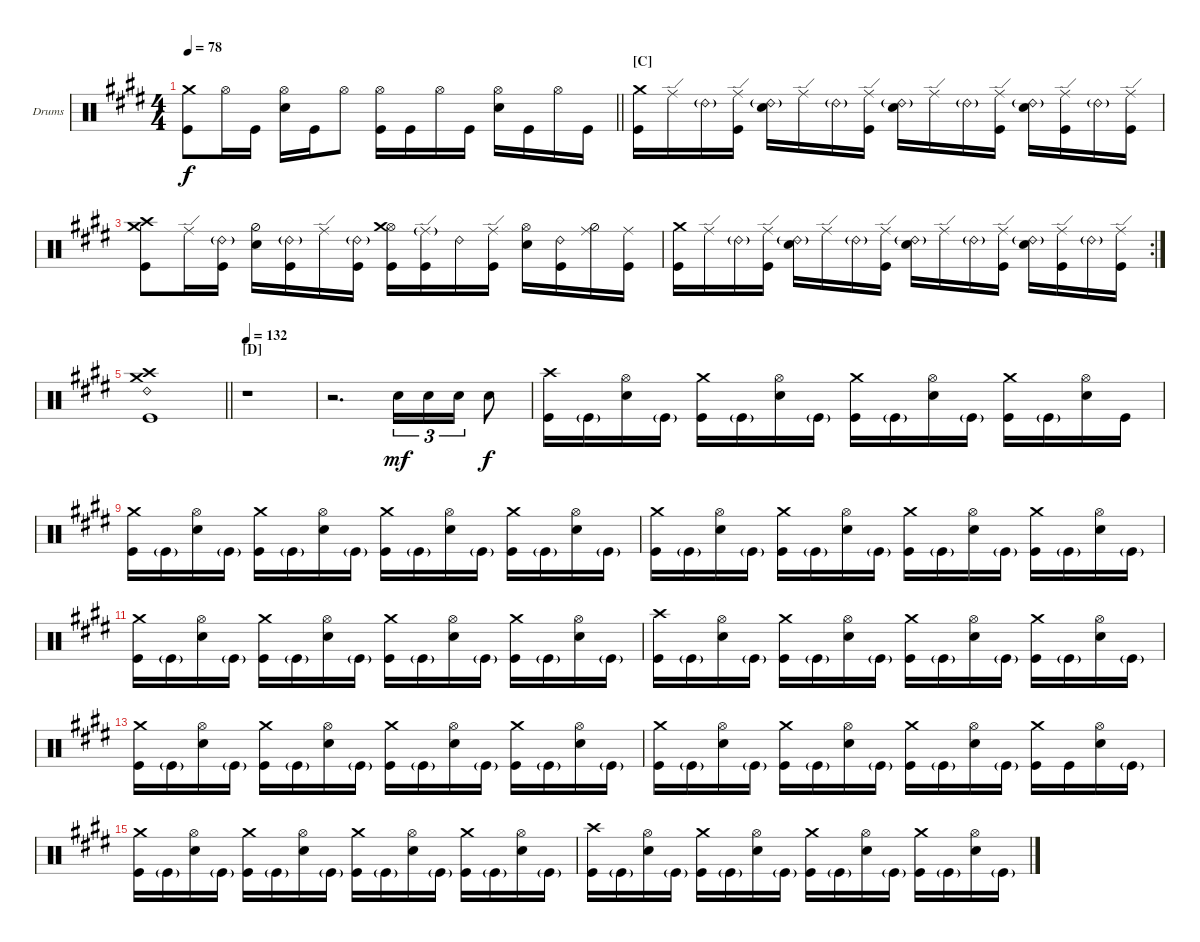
\bracketExtendMode nobrackets
\firstSystemTrackNameOrientation horizontal
\otherSystemsTrackNameOrientation horizontal
\defaultBarNumberDisplay FirstOfSystem
\track ("Drumkit" "Drums") {instrument percussion}
\staff {score}
\articulation defaults
\ts (4 4)
\tempo 78
\clef neutral
\barLineRight lightlight
\ks c#minor
("Crash medium (hit)" "Kick (hit)").8{dy f} "Hi-Hat (open)".16 "Kick (hit)".16 ("Hi-Hat (open)" "Snare (hit) 2").16 "Kick (hit)".16 "Hi-Hat (open)".8 ("Hi-Hat (open)" "Kick (hit)").16 "Kick (hit)".16 "Hi-Hat (open)".16 "Kick (hit)".16 ("Hi-Hat (open)" "Snare (hit) 2").16 "Kick (hit)".16 "Hi-Hat (open)".16 "Kick (hit)".16 |
\section ("C" "")
("Crash medium (hit)" "Kick (hit)").16 "Ride (edge)".16 "Ride (bell) 2"{g}.16 ("Ride (edge)" "Kick (hit)").16 ("Ride (bell) 2"{g} "Snare (hit) 2").16 "Ride (edge)".16 "Ride (bell) 2"{g}.16 ("Ride (edge)" "Kick (hit)").16 ("Ride (bell) 2"{g} "Snare (hit) 2").16 "Ride (edge)".16 "Ride (bell) 2"{g}.16 ("Ride (edge)" "Kick (hit)").16 ("Ride (bell) 2"{g} "Snare (hit) 2").16 ("Ride (edge)" "Kick (hit)").16 "Ride (bell) 2"{g}.16 ("Ride (edge)" "Kick (hit)").16 |
("Crash medium (hit)" "Crash high (hit)" "Kick (hit)").8 "Ride (edge)".16 ("Kick (hit)" "Ride (bell) 2"{g}).16 ("Snare (hit) 2" "Hi-Hat (half)").16 ("Kick (hit)" "Ride (bell) 2"{g}).16 "Ride (edge)".16 ("Kick (hit)" "Ride (bell) 2"{g}).16 ("Hi-Hat (open)" "Kick (hit)" "Crash medium (hit)").16 ("Kick (hit)" "Ride (edge)"{g}).16 "Ride (bell) 2".16 ("Kick (hit)" "Ride (edge)").16 ("Hi-Hat (open)" "Snare (hit) 2").16 ("Kick (hit)" "Ride (bell) 2").16 ("Hi-Hat (half)" "Ride (middle)").16 ("Kick (hit)" "Ride (middle)").16 |
\rc 2
("Crash medium (hit)" "Kick (hit)").16 "Ride (edge)".16 "Ride (bell) 2"{g}.16 ("Ride (edge)" "Kick (hit)").16 ("Ride (bell) 2"{g} "Snare (hit) 2").16 "Ride (edge)".16 "Ride (bell) 2"{g}.16 ("Ride (edge)" "Kick (hit)").16 ("Ride (bell) 2"{g} "Snare (hit) 2").16 "Ride (edge)".16 "Ride (bell) 2"{g}.16 ("Ride (edge)" "Kick (hit)").16 ("Ride (bell) 2"{g} "Snare (hit) 2").16 ("Ride (edge)" "Kick (hit)").16 "Ride (bell) 2"{g}.16 ("Ride (edge)" "Kick (hit)").16 |
\barLineRight lightlight
("Crash medium (hit)" "Crash high (hit)" "Kick (hit)" "Ride (bell) 2").1 |
\section ("D" "")
\tempo 132
r.1 |
r.2{d} "Snare (hit) 2".16{tu (3 2) dy mf} "Snare (hit) 2".16{tu (3 2)} "Snare (hit) 2".16{tu (3 2)} "Snare (hit) 2".8{dy f} |
("Kick (hit)" "Crash high (hit)").16 "Kick (hit)"{g}.16 ("Snare (hit) 2" "Hi-Hat (open)").16 "Kick (hit)"{g}.16 ("Crash medium (hit)" "Kick (hit)").16 "Kick (hit)"{g}.16 ("Snare (hit) 2" "Hi-Hat (open)").16 "Kick (hit)"{g}.16 ("Kick (hit)" "Crash medium (hit)").16 "Kick (hit)"{g}.16 ("Snare (hit) 2" "Hi-Hat (open)").16 "Kick (hit)"{g}.16 ("Crash medium (hit)" "Kick (hit)").16 "Kick (hit)"{g}.16 ("Snare (hit) 2" "Hi-Hat (open)").16 "Kick (hit)".16 |
("Kick (hit)" "Crash medium (hit)").16 "Kick (hit)"{g}.16 ("Snare (hit) 2" "Hi-Hat (open)").16 "Kick (hit)"{g}.16 ("Crash medium (hit)" "Kick (hit)").16 "Kick (hit)"{g}.16 ("Snare (hit) 2" "Hi-Hat (open)").16 "Kick (hit)"{g}.16 ("Kick (hit)" "Crash medium (hit)").16 "Kick (hit)"{g}.16 ("Snare (hit) 2" "Hi-Hat (open)").16 "Kick (hit)"{g}.16 ("Crash medium (hit)" "Kick (hit)").16 "Kick (hit)"{g}.16 ("Snare (hit) 2" "Hi-Hat (open)").16 "Kick (hit)"{g}.16 |
("Kick (hit)" "Crash medium (hit)").16 "Kick (hit)"{g}.16 ("Snare (hit) 2" "Hi-Hat (open)").16 "Kick (hit)"{g}.16 ("Crash medium (hit)" "Kick (hit)").16 "Kick (hit)"{g}.16 ("Snare (hit) 2" "Hi-Hat (open)").16 "Kick (hit)"{g}.16 ("Kick (hit)" "Crash medium (hit)").16 "Kick (hit)"{g}.16 ("Snare (hit) 2" "Hi-Hat (open)").16 "Kick (hit)"{g}.16 ("Crash medium (hit)" "Kick (hit)").16 "Kick (hit)"{g}.16 ("Snare (hit) 2" "Hi-Hat (open)").16 "Kick (hit)"{g}.16 |
("Kick (hit)" "Crash medium (hit)").16 "Kick (hit)"{g}.16 ("Snare (hit) 2" "Hi-Hat (open)").16 "Kick (hit)"{g}.16 ("Crash medium (hit)" "Kick (hit)").16 "Kick (hit)"{g}.16 ("Snare (hit) 2" "Hi-Hat (open)").16 "Kick (hit)"{g}.16 ("Kick (hit)" "Crash medium (hit)").16 "Kick (hit)"{g}.16 ("Snare (hit) 2" "Hi-Hat (open)").16 "Kick (hit)"{g}.16 ("Crash medium (hit)" "Kick (hit)").16 "Kick (hit)"{g}.16 ("Snare (hit) 2" "Hi-Hat (open)").16 "Kick (hit)"{g}.16 |
("Kick (hit)" "Crash high (hit)").16 "Kick (hit)"{g}.16 ("Snare (hit) 2" "Hi-Hat (open)").16 "Kick (hit)"{g}.16 ("Crash medium (hit)" "Kick (hit)").16 "Kick (hit)"{g}.16 ("Snare (hit) 2" "Hi-Hat (open)").16 "Kick (hit)"{g}.16 ("Kick (hit)" "Crash medium (hit)").16 "Kick (hit)"{g}.16 ("Snare (hit) 2" "Hi-Hat (open)").16 "Kick (hit)"{g}.16 ("Crash medium (hit)" "Kick (hit)").16 "Kick (hit)"{g}.16 ("Snare (hit) 2" "Hi-Hat (open)").16 "Kick (hit)"{g}.16 |
("Kick (hit)" "Crash medium (hit)").16 "Kick (hit)"{g}.16 ("Snare (hit) 2" "Hi-Hat (open)").16 "Kick (hit)"{g}.16 ("Crash medium (hit)" "Kick (hit)").16 "Kick (hit)"{g}.16 ("Snare (hit) 2" "Hi-Hat (open)").16 "Kick (hit)"{g}.16 ("Kick (hit)" "Crash medium (hit)").16 "Kick (hit)"{g}.16 ("Snare (hit) 2" "Hi-Hat (open)").16 "Kick (hit)"{g}.16 ("Crash medium (hit)" "Kick (hit)").16 "Kick (hit)"{g}.16 ("Snare (hit) 2" "Hi-Hat (open)").16 "Kick (hit)"{g}.16 |
("Kick (hit)" "Crash medium (hit)").16 "Kick (hit)"{g}.16 ("Snare (hit) 2" "Hi-Hat (open)").16 "Kick (hit)"{g}.16 ("Crash medium (hit)" "Kick (hit)").16 "Kick (hit)"{g}.16 ("Snare (hit) 2" "Hi-Hat (open)").16 "Kick (hit)"{g}.16 ("Kick (hit)" "Crash medium (hit)").16 "Kick (hit)"{g}.16 ("Snare (hit) 2" "Hi-Hat (open)").16 "Kick (hit)"{g}.16 ("Crash medium (hit)" "Kick (hit)").16 "Kick (hit)".16 ("Snare (hit) 2" "Hi-Hat (open)").16 "Kick (hit)"{g}.16 |
("Kick (hit)" "Crash medium (hit)").16 "Kick (hit)"{g}.16 ("Snare (hit) 2" "Hi-Hat (open)").16 "Kick (hit)"{g}.16 ("Crash medium (hit)" "Kick (hit)").16 "Kick (hit)"{g}.16 ("Snare (hit) 2" "Hi-Hat (open)").16 "Kick (hit)"{g}.16 ("Kick (hit)" "Crash medium (hit)").16 "Kick (hit)"{g}.16 ("Snare (hit) 2" "Hi-Hat (open)").16 "Kick (hit)"{g}.16 ("Crash medium (hit)" "Kick (hit)").16 "Kick (hit)"{g}.16 ("Snare (hit) 2" "Hi-Hat (open)").16 "Kick (hit)"{g}.16 |
("Kick (hit)" "Crash high (hit)").16 "Kick (hit)"{g}.16 ("Snare (hit) 2" "Hi-Hat (open)").16 "Kick (hit)"{g}.16 ("Crash medium (hit)" "Kick (hit)").16 "Kick (hit)"{g}.16 ("Snare (hit) 2" "Hi-Hat (open)").16 "Kick (hit)"{g}.16 ("Kick (hit)" "Crash medium (hit)").16 "Kick (hit)"{g}.16 ("Snare (hit) 2" "Hi-Hat (open)").16 "Kick (hit)"{g}.16 ("Crash medium (hit)" "Kick (hit)").16 "Kick (hit)"{g}.16 ("Snare (hit) 2" "Hi-Hat (open)").16 "Kick (hit)"{g}.16
